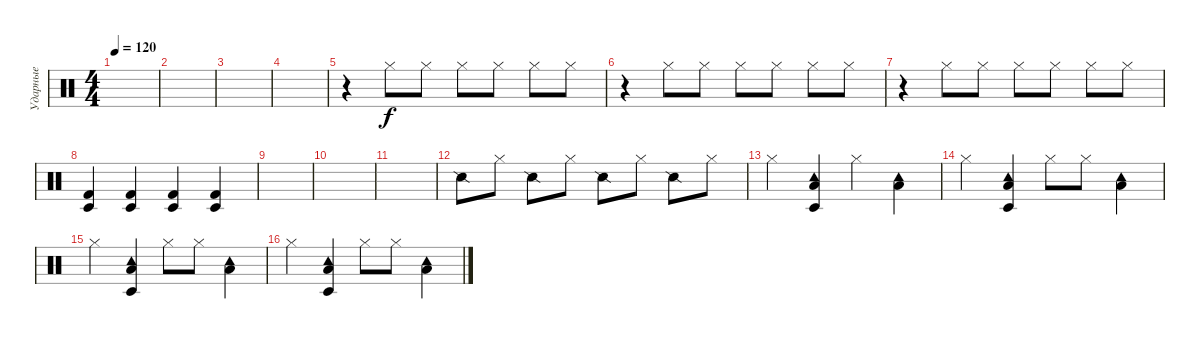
\track ("Ударные" "Ударные") {instrument percussion}
\staff {score}
\articulation defaults
\ts (4 4)
\tempo 120
\clef neutral
\ks c
|
|
|
|
r.4 "Hi-Hat (closed)".8 "Hi-Hat (closed)".8 "Hi-Hat (closed)".8 "Hi-Hat (closed)".8 "Hi-Hat (closed)".8 "Hi-Hat (closed)".8 |
r.4 "Hi-Hat (closed)".8 "Hi-Hat (closed)".8 "Hi-Hat (closed)".8 "Hi-Hat (closed)".8 "Hi-Hat (closed)".8 "Hi-Hat (closed)".8 |
r.4 "Hi-Hat (closed)".8 "Hi-Hat (closed)".8 "Hi-Hat (closed)".8 "Hi-Hat (closed)".8 "Hi-Hat (closed)".8 "Hi-Hat (closed)".8 |
("Timbale low (hit)" "Kick (hit) 2").4 ("Timbale low (hit)" "Kick (hit) 2").4 ("Timbale low (hit)" "Kick (hit) 2").4 ("Timbale low (hit)" "Kick (hit) 2").4 |
|
|
|
"Snare (side stick) 2".8 "Hi-Hat (closed)".8 "Snare (side stick) 2".8 "Hi-Hat (closed)".8 "Snare (side stick) 2".8 "Hi-Hat (closed)".8 "Snare (side stick) 2".8 "Hi-Hat (closed)".8 |
"Hi-Hat (closed)".4 ("Tambourine (hit)" "Timbale low (hit)" "Low Tom (hit)").4 "Hi-Hat (closed)".4 ("Tambourine (hit)" "Low Tom (hit)").4 |
"Hi-Hat (closed)".4 ("Tambourine (hit)" "Timbale low (hit)" "Low Tom (hit)").4 "Hi-Hat (closed)".8 "Hi-Hat (closed)".8 ("Tambourine (hit)" "Low Tom (hit)").4 |
"Hi-Hat (closed)".4 ("Tambourine (hit)" "Timbale low (hit)" "Low Tom (hit)").4 "Hi-Hat (closed)".8 "Hi-Hat (closed)".8 ("Tambourine (hit)" "Low Tom (hit)").4 |
"Hi-Hat (closed)".4 ("Tambourine (hit)" "Timbale low (hit)" "Low Tom (hit)").4 "Hi-Hat (closed)".8 "Hi-Hat (closed)".8 ("Tambourine (hit)" "Low Tom (hit)").4
